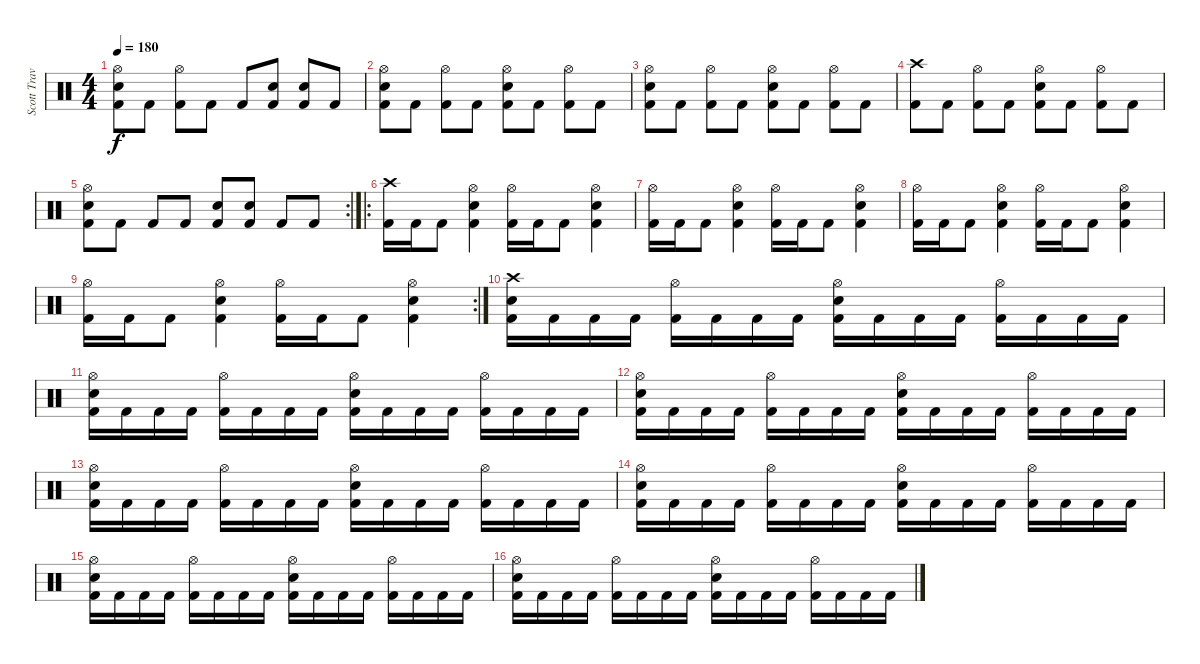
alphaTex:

\track ("Scott Travis" "Scott Trav") {instrument percussion}
\staff {score}
\articulation defaults
\ts (4 4)
\tempo 180
\clef neutral
\ks c
("Hi-Hat (open)" "Snare (hit) 2" "Kick (hit) 2").8{dy f} "Kick (hit) 2".8 ("Hi-Hat (open)" "Kick (hit) 2").8 "Kick (hit) 2".8 "Kick (hit) 2".8 ("Snare (hit) 2" "Kick (hit) 2").8 ("Snare (hit) 2" "Kick (hit) 2").8 "Kick (hit) 2".8 |
("Hi-Hat (open)" "Snare (hit) 2" "Kick (hit) 2").8 "Kick (hit) 2".8 ("Hi-Hat (open)" "Kick (hit) 2").8 "Kick (hit) 2".8 ("Hi-Hat (open)" "Snare (hit) 2" "Kick (hit) 2").8 "Kick (hit) 2".8 ("Hi-Hat (open)" "Kick (hit) 2").8 "Kick (hit) 2".8 |
("Hi-Hat (open)" "Snare (hit) 2" "Kick (hit) 2").8 "Kick (hit) 2".8 ("Hi-Hat (open)" "Kick (hit) 2").8 "Kick (hit) 2".8 ("Hi-Hat (open)" "Snare (hit) 2" "Kick (hit) 2").8 "Kick (hit) 2".8 ("Hi-Hat (open)" "Kick (hit) 2").8 "Kick (hit) 2".8 |
("Crash high (hit)" "Kick (hit) 2").8 "Kick (hit) 2".8 ("Hi-Hat (open)" "Kick (hit) 2").8 "Kick (hit) 2".8 ("Hi-Hat (open)" "Snare (hit) 2" "Kick (hit) 2").8 "Kick (hit) 2".8 ("Hi-Hat (open)" "Kick (hit) 2").8 "Kick (hit) 2".8 |
\rc 2
("Hi-Hat (open)" "Snare (hit) 2" "Kick (hit) 2").8 "Kick (hit) 2".8 "Kick (hit) 2".8 "Kick (hit) 2".8 ("Snare (hit) 2" "Kick (hit) 2").8 ("Snare (hit) 2" "Kick (hit) 2").8 "Kick (hit) 2".8 "Kick (hit) 2".8 |
\ro
("Crash high (hit)" "Kick (hit) 2").16 "Kick (hit) 2".16 "Kick (hit) 2".8 ("Hi-Hat (open)" "Snare (hit) 2" "Kick (hit) 2").4 ("Hi-Hat (open)" "Kick (hit) 2").16 "Kick (hit) 2".16 "Kick (hit) 2".8 ("Hi-Hat (open)" "Snare (hit) 2" "Kick (hit) 2").4 |
("Hi-Hat (open)" "Kick (hit) 2").16 "Kick (hit) 2".16 "Kick (hit) 2".8 ("Hi-Hat (open)" "Snare (hit) 2" "Kick (hit) 2").4 ("Hi-Hat (open)" "Kick (hit) 2").16 "Kick (hit) 2".16 "Kick (hit) 2".8 ("Hi-Hat (open)" "Snare (hit) 2" "Kick (hit) 2").4 |
("Hi-Hat (open)" "Kick (hit) 2").16 "Kick (hit) 2".16 "Kick (hit) 2".8 ("Hi-Hat (open)" "Snare (hit) 2" "Kick (hit) 2").4 ("Hi-Hat (open)" "Kick (hit) 2").16 "Kick (hit) 2".16 "Kick (hit) 2".8 ("Hi-Hat (open)" "Snare (hit) 2" "Kick (hit) 2").4 |
\rc 2
("Hi-Hat (open)" "Kick (hit) 2").16 "Kick (hit) 2".16 "Kick (hit) 2".8 ("Hi-Hat (open)" "Snare (hit) 2" "Kick (hit) 2").4 ("Hi-Hat (open)" "Kick (hit) 2").16 "Kick (hit) 2".16 "Kick (hit) 2".8 ("Hi-Hat (open)" "Snare (hit) 2" "Kick (hit) 2").4 |
("Crash high (hit)" "Snare (hit) 2" "Kick (hit) 2").16 "Kick (hit) 2".16 "Kick (hit) 2".16 "Kick (hit) 2".16 ("Hi-Hat (open)" "Kick (hit) 2").16 "Kick (hit) 2".16 "Kick (hit) 2".16 "Kick (hit) 2".16 ("Hi-Hat (open)" "Snare (hit) 2" "Kick (hit) 2").16 "Kick (hit) 2".16 "Kick (hit) 2".16 "Kick (hit) 2".16 ("Hi-Hat (open)" "Kick (hit) 2").16 "Kick (hit) 2".16 "Kick (hit) 2".16 "Kick (hit) 2".16 |
("Hi-Hat (open)" "Snare (hit) 2" "Kick (hit) 2").16 "Kick (hit) 2".16 "Kick (hit) 2".16 "Kick (hit) 2".16 ("Hi-Hat (open)" "Kick (hit) 2").16 "Kick (hit) 2".16 "Kick (hit) 2".16 "Kick (hit) 2".16 ("Hi-Hat (open)" "Snare (hit) 2" "Kick (hit) 2").16 "Kick (hit) 2".16 "Kick (hit) 2".16 "Kick (hit) 2".16 ("Hi-Hat (open)" "Kick (hit) 2").16 "Kick (hit) 2".16 "Kick (hit) 2".16 "Kick (hit) 2".16 |
("Hi-Hat (open)" "Snare (hit) 2" "Kick (hit) 2").16 "Kick (hit) 2".16 "Kick (hit) 2".16 "Kick (hit) 2".16 ("Hi-Hat (open)" "Kick (hit) 2").16 "Kick (hit) 2".16 "Kick (hit) 2".16 "Kick (hit) 2".16 ("Hi-Hat (open)" "Snare (hit) 2" "Kick (hit) 2").16 "Kick (hit) 2".16 "Kick (hit) 2".16 "Kick (hit) 2".16 ("Hi-Hat (open)" "Kick (hit) 2").16 "Kick (hit) 2".16 "Kick (hit) 2".16 "Kick (hit) 2".16 |
("Hi-Hat (open)" "Snare (hit) 2" "Kick (hit) 2").16 "Kick (hit) 2".16 "Kick (hit) 2".16 "Kick (hit) 2".16 ("Hi-Hat (open)" "Kick (hit) 2").16 "Kick (hit) 2".16 "Kick (hit) 2".16 "Kick (hit) 2".16 ("Hi-Hat (open)" "Snare (hit) 2" "Kick (hit) 2").16 "Kick (hit) 2".16 "Kick (hit) 2".16 "Kick (hit) 2".16 ("Hi-Hat (open)" "Kick (hit) 2").16 "Kick (hit) 2".16 "Kick (hit) 2".16 "Kick (hit) 2".16 |
("Hi-Hat (open)" "Snare (hit) 2" "Kick (hit) 2").16 "Kick (hit) 2".16 "Kick (hit) 2".16 "Kick (hit) 2".16 ("Hi-Hat (open)" "Kick (hit) 2").16 "Kick (hit) 2".16 "Kick (hit) 2".16 "Kick (hit) 2".16 ("Hi-Hat (open)" "Snare (hit) 2" "Kick (hit) 2").16 "Kick (hit) 2".16 "Kick (hit) 2".16 "Kick (hit) 2".16 ("Hi-Hat (open)" "Kick (hit) 2").16 "Kick (hit) 2".16 "Kick (hit) 2".16 "Kick (hit) 2".16 |
("Hi-Hat (open)" "Snare (hit) 2" "Kick (hit) 2").16 "Kick (hit) 2".16 "Kick (hit) 2".16 "Kick (hit) 2".16 ("Hi-Hat (open)" "Kick (hit) 2").16 "Kick (hit) 2".16 "Kick (hit) 2".16 "Kick (hit) 2".16 ("Hi-Hat (open)" "Snare (hit) 2" "Kick (hit) 2").16 "Kick (hit) 2".16 "Kick (hit) 2".16 "Kick (hit) 2".16 ("Hi-Hat (open)" "Kick (hit) 2").16 "Kick (hit) 2".16 "Kick (hit) 2".16 "Kick (hit) 2".16 |
("Hi-Hat (open)" "Snare (hit) 2" "Kick (hit) 2").16 "Kick (hit) 2".16 "Kick (hit) 2".16 "Kick (hit) 2".16 ("Hi-Hat (open)" "Kick (hit) 2").16 "Kick (hit) 2".16 "Kick (hit) 2".16 "Kick (hit) 2".16 ("Hi-Hat (open)" "Snare (hit) 2" "Kick (hit) 2").16 "Kick (hit) 2".16 "Kick (hit) 2".16 "Kick (hit) 2".16 ("Hi-Hat (open)" "Kick (hit) 2").16 "Kick (hit) 2".16 "Kick (hit) 2".16 "Kick (hit) 2".16
